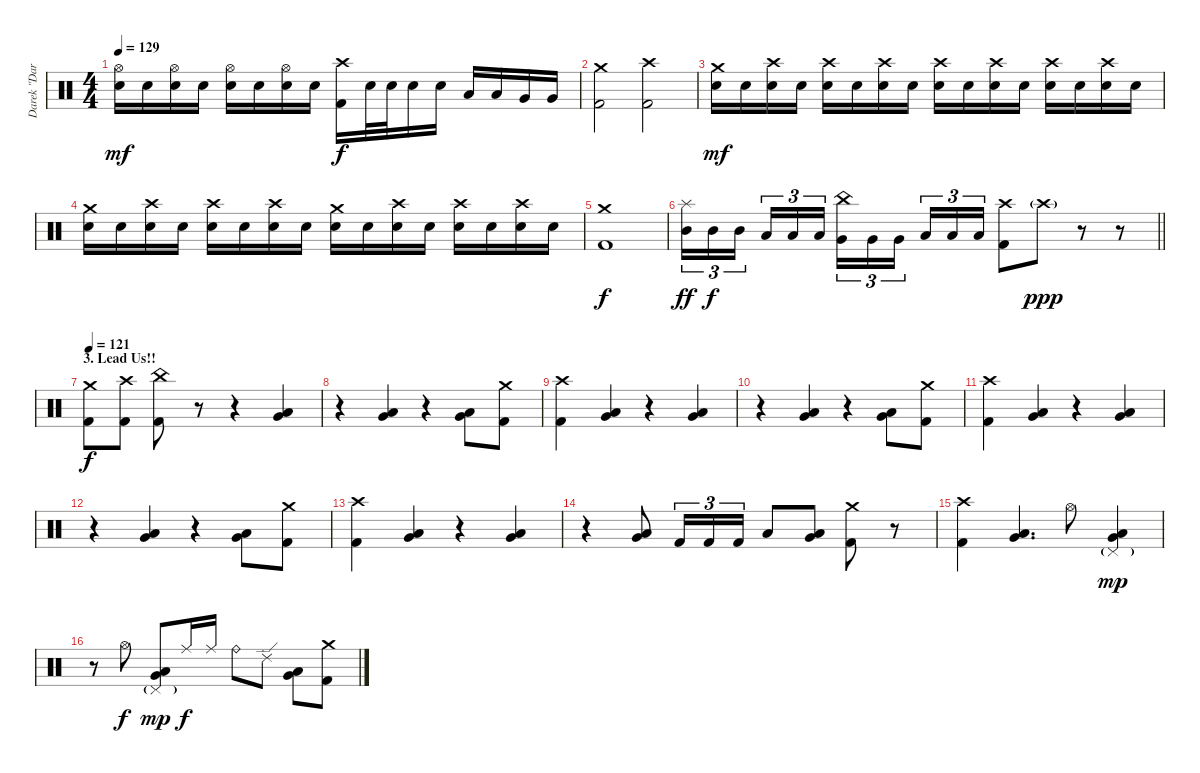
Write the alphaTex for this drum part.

\track ("Darek \"Daray\" Brzozowski " "Darek \"Dar") {instrument percussion}
\staff {score}
\articulation defaults
\ts (4 4)
\tempo 129
\clef neutral
\ks c
("Hi-Hat (open)" "Electric Snare (hit)").16{dy mf} "Electric Snare (hit)".16 ("Hi-Hat (open)" "Electric Snare (hit)").16 "Electric Snare (hit)".16 ("Hi-Hat (open)" "Electric Snare (hit)").16 "Electric Snare (hit)".16 ("Hi-Hat (open)" "Electric Snare (hit)").16 "Electric Snare (hit)".16 ("Crash high (hit)" "Kick (hit) 2").16{dy f} "Electric Snare (hit)".32 "Electric Snare (hit)".32 "Electric Snare (hit)".16 "Electric Snare (hit)".16 "Low Tom (hit)".16 "Low Tom (hit)".16 "Very Low Tom (hit)".16 "Very Low Tom (hit)".16 |
("Crash medium (hit)" "Kick (hit) 2").2 ("Crash high (hit)" "Kick (hit) 2").2 |
("Crash medium (hit)" "Electric Snare (hit)").16{dy mf} "Electric Snare (hit)".16 ("Crash high (hit)" "Electric Snare (hit)").16 "Electric Snare (hit)".16 ("Crash high (hit)" "Electric Snare (hit)").16 "Electric Snare (hit)".16 ("Crash high (hit)" "Electric Snare (hit)").16 "Electric Snare (hit)".16 ("Crash high (hit)" "Electric Snare (hit)").16 "Electric Snare (hit)".16 ("Crash high (hit)" "Electric Snare (hit)").16 "Electric Snare (hit)".16 ("Crash high (hit)" "Electric Snare (hit)").16 "Electric Snare (hit)".16 ("Crash high (hit)" "Electric Snare (hit)").16 "Electric Snare (hit)".16 |
("Crash medium (hit)" "Electric Snare (hit)").16 "Electric Snare (hit)".16 ("Crash high (hit)" "Electric Snare (hit)").16 "Electric Snare (hit)".16 ("Crash high (hit)" "Electric Snare (hit)").16 "Electric Snare (hit)".16 ("Crash high (hit)" "Electric Snare (hit)").16 "Electric Snare (hit)".16 ("Crash medium (hit)" "Electric Snare (hit)").16 "Electric Snare (hit)".16 ("Crash high (hit)" "Electric Snare (hit)").16 "Electric Snare (hit)".16 ("Crash high (hit)" "Electric Snare (hit)").16 "Electric Snare (hit)".16 ("Crash high (hit)" "Electric Snare (hit)").16 "Electric Snare (hit)".16 |
("Crash medium (hit)" "Kick (hit) 2").1{dy f} |
\barLineRight lightlight
("Splash (hit)" "Mid Tom (hit)").16{tu (3 2) dy ff} "Mid Tom (hit)".16{tu (3 2) dy f} "Mid Tom (hit)".16{tu (3 2) beam splitsecondary} "Low Tom (hit)".16{tu (3 2)} "Low Tom (hit)".16{tu (3 2)} "Low Tom (hit)".16{tu (3 2)} ("China (hit)" "Very Low Tom (hit)").16{tu (3 2)} "Very Low Tom (hit)".16{tu (3 2)} "Very Low Tom (hit)".16{tu (3 2) beam splitsecondary} "Low Floor Tom (hit)".16{tu (3 2)} "Low Floor Tom (hit)".16{tu (3 2)} "Low Floor Tom (hit)".16{tu (3 2)} ("Crash high (hit)" "Kick (hit) 2").8 "Crash high (hit)"{g}.8{dy ppp} r.8 r.8 |
\section ("" "3. Lead Us!!")
\tempo 121
("Crash medium (hit)" "Kick (hit) 2").8{dy f} ("Crash high (hit)" "Kick (hit) 2").8 ("China (hit)" "Kick (hit) 2").8 r.8 r.4 ("Very Low Tom (hit)" "Low Floor Tom (hit)").4 |
r.4 ("Very Low Tom (hit)" "Low Floor Tom (hit)").4 r.4 ("Very Low Tom (hit)" "Low Floor Tom (hit)").8 ("Crash medium (hit)" "Kick (hit) 2").8 |
("Crash high (hit)" "Kick (hit) 2").4 ("Very Low Tom (hit)" "Low Floor Tom (hit)").4 r.4 ("Very Low Tom (hit)" "Low Floor Tom (hit)").4 |
r.4 ("Very Low Tom (hit)" "Low Floor Tom (hit)").4 r.4 ("Very Low Tom (hit)" "Low Floor Tom (hit)").8 ("Crash medium (hit)" "Kick (hit) 2").8 |
("Crash high (hit)" "Kick (hit) 2").4 ("Very Low Tom (hit)" "Low Floor Tom (hit)").4 r.4 ("Very Low Tom (hit)" "Low Floor Tom (hit)").4 |
r.4 ("Very Low Tom (hit)" "Low Floor Tom (hit)").4 r.4 ("Very Low Tom (hit)" "Low Floor Tom (hit)").8 ("Crash medium (hit)" "Kick (hit) 2").8 |
("Crash high (hit)" "Kick (hit) 2").4 ("Very Low Tom (hit)" "Low Floor Tom (hit)").4 r.4 ("Very Low Tom (hit)" "Low Floor Tom (hit)").4 |
r.4 ("Very Low Tom (hit)" "Low Floor Tom (hit)").8 "Kick (hit) 2".16{tu (3 2)} "Kick (hit) 2".16{tu (3 2)} "Kick (hit) 2".16{tu (3 2)} "Low Tom (hit)".8 ("Very Low Tom (hit)" "Low Floor Tom (hit)").8 ("Crash medium (hit)" "Kick (hit) 2").8 r.8 |
("Crash high (hit)" "Kick (hit) 2").4 ("Very Low Tom (hit)" "Low Floor Tom (hit)").4{d} "Hi-Hat (open)".8 ("Pedal Hi-Hat (hit)"{g} "Very Low Tom (hit)" "Low Floor Tom (hit)").4{dy mp} |
r.8 "Hi-Hat (open)".8{dy f} ("Pedal Hi-Hat (hit)"{g} "Very Low Tom (hit)" "Low Floor Tom (hit)").8{dy mp} "Ride (middle)".16{dy f} "Ride (middle)".16 "Ride (bell)".8 "Ride (edge) 2".8 ("Very Low Tom (hit)" "Low Floor Tom (hit)").8 ("Crash medium (hit)" "Kick (hit) 2").8
